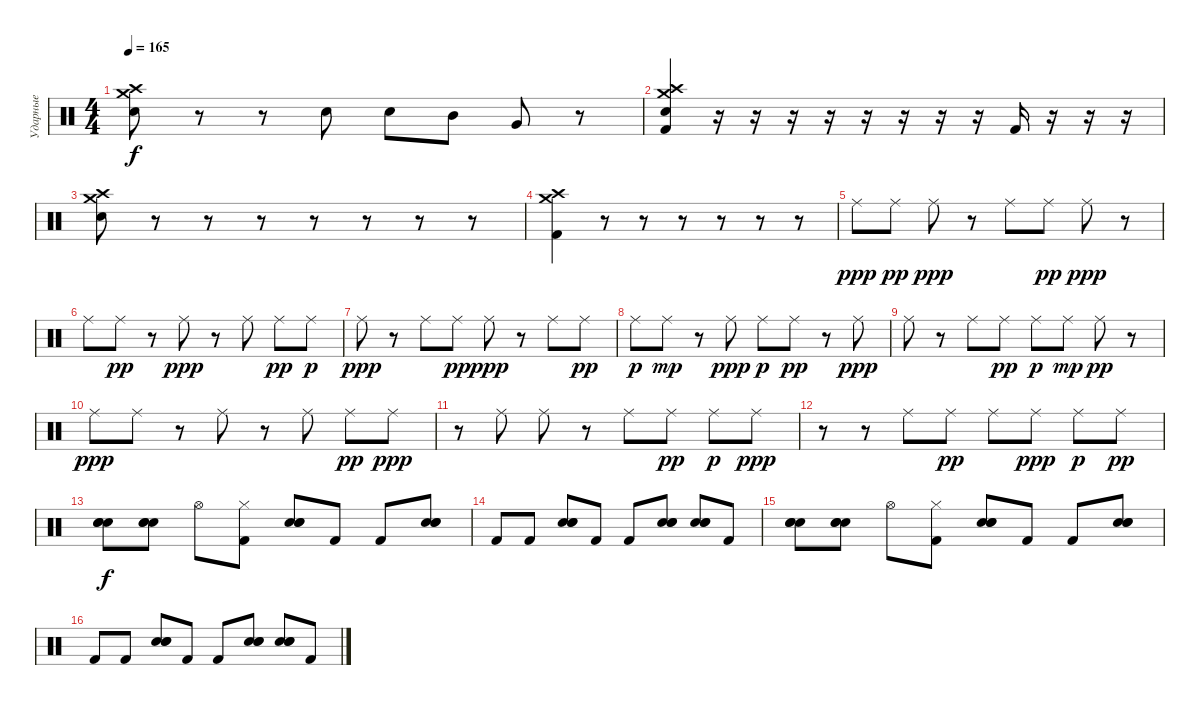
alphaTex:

\track ("Ударные" "Ударные") {instrument percussion}
\staff {score}
\articulation defaults
\ts (4 4)
\tempo 165
\clef neutral
\ks c
("Electric Snare (hit)" "Crash medium (hit)" "Crash high (hit)").8{dy f} r.8 r.8 "Electric Snare (hit)".8 "Electric Snare (hit)".8 "Mid Tom (hit)".8 "Very Low Tom (hit)".8 r.8 |
("Electric Snare (hit)" "Crash high (hit)" "Crash medium (hit)" "Kick (hit) 2").4 r.16 r.16 r.16 r.16 r.16 r.16 r.16 r.16 "Kick (hit) 2".16 r.16 r.16 r.16 |
("Electric Snare (hit)" "Crash medium (hit)" "Crash high (hit)").8 r.8 r.8 r.8 r.8 r.8 r.8 r.8 |
("Crash high (hit)" "Crash medium (hit)" "Kick (hit) 2").4 r.8 r.8 r.8 r.8 r.8 r.8 |
"Ride (middle)".8{dy ppp} "Ride (middle)".8{dy pp} "Ride (middle)".8{dy ppp} r.8 "Ride (middle)".8 "Ride (middle)".8{dy pp} "Ride (middle)".8{dy ppp} r.8 |
"Ride (middle)".8 "Ride (middle)".8{dy pp} r.8 "Ride (middle)".8{dy ppp} r.8 "Ride (middle)".8 "Ride (middle)".8{dy pp} "Ride (middle)".8{dy p} |
"Ride (middle)".8{dy ppp} r.8 "Ride (middle)".8 "Ride (middle)".8{dy pp} "Ride (middle)".8{dy ppp} r.8 "Ride (middle)".8 "Ride (middle)".8{dy pp} |
"Ride (middle)".8{dy p} "Ride (middle)".8{dy mp} r.8 "Ride (middle)".8{dy ppp} "Ride (middle)".8{dy p} "Ride (middle)".8{dy pp} r.8 "Ride (middle)".8{dy ppp} |
"Ride (middle)".8 r.8 "Ride (middle)".8 "Ride (middle)".8{dy pp} "Ride (middle)".8{dy p} "Ride (middle)".8{dy mp} "Ride (middle)".8{dy pp} r.8 |
"Ride (middle)".8{dy ppp} "Ride (middle)".8 r.8 "Ride (middle)".8 r.8 "Ride (middle)".8 "Ride (middle)".8{dy pp} "Ride (middle)".8{dy ppp} |
r.8 "Ride (middle)".8 "Ride (middle)".8 r.8 "Ride (middle)".8 "Ride (middle)".8{dy pp} "Ride (middle)".8{dy p} "Ride (middle)".8{dy ppp} |
r.8 r.8 "Ride (middle)".8 "Ride (middle)".8{dy pp} "Ride (middle)".8 "Ride (middle)".8{dy ppp} "Ride (middle)".8{dy p} "Ride (middle)".8{dy pp} |
("Electric Snare (hit)" "Electric Snare (hit)" "Electric Snare (hit)").8{bu 120 dy f} ("Electric Snare (hit)" "Electric Snare (hit)" "Electric Snare (hit)").8{bu 120} "Hi-Hat (open)".8 ("Hi-Hat (closed)" "Kick (hit) 2").8 ("Electric Snare (hit)" "Electric Snare (hit)" "Electric Snare (hit)").8{bu 120} "Kick (hit) 2".8 "Kick (hit) 2".8 ("Electric Snare (hit)" "Electric Snare (hit)" "Electric Snare (hit)").8{bu 120} |
"Kick (hit) 2".8 "Kick (hit) 2".8 ("Electric Snare (hit)" "Electric Snare (hit)" "Electric Snare (hit)").8{bu 120} "Kick (hit) 2".8 "Kick (hit) 2".8 ("Electric Snare (hit)" "Electric Snare (hit)" "Electric Snare (hit)").8{bu 120} ("Electric Snare (hit)" "Electric Snare (hit)" "Electric Snare (hit)").8{bu 120} "Kick (hit) 2".8 |
("Electric Snare (hit)" "Electric Snare (hit)" "Electric Snare (hit)").8{bu 120} ("Electric Snare (hit)" "Electric Snare (hit)" "Electric Snare (hit)").8{bu 120} "Hi-Hat (open)".8 ("Hi-Hat (closed)" "Kick (hit) 2").8 ("Electric Snare (hit)" "Electric Snare (hit)" "Electric Snare (hit)").8{bu 120} "Kick (hit) 2".8 "Kick (hit) 2".8 ("Electric Snare (hit)" "Electric Snare (hit)" "Electric Snare (hit)").8{bu 120} |
"Kick (hit) 2".8 "Kick (hit) 2".8 ("Electric Snare (hit)" "Electric Snare (hit)" "Electric Snare (hit)").8{bu 120} "Kick (hit) 2".8 "Kick (hit) 2".8 ("Electric Snare (hit)" "Electric Snare (hit)" "Electric Snare (hit)").8{bu 120} ("Electric Snare (hit)" "Electric Snare (hit)" "Electric Snare (hit)").8{bu 120} "Kick (hit) 2".8
